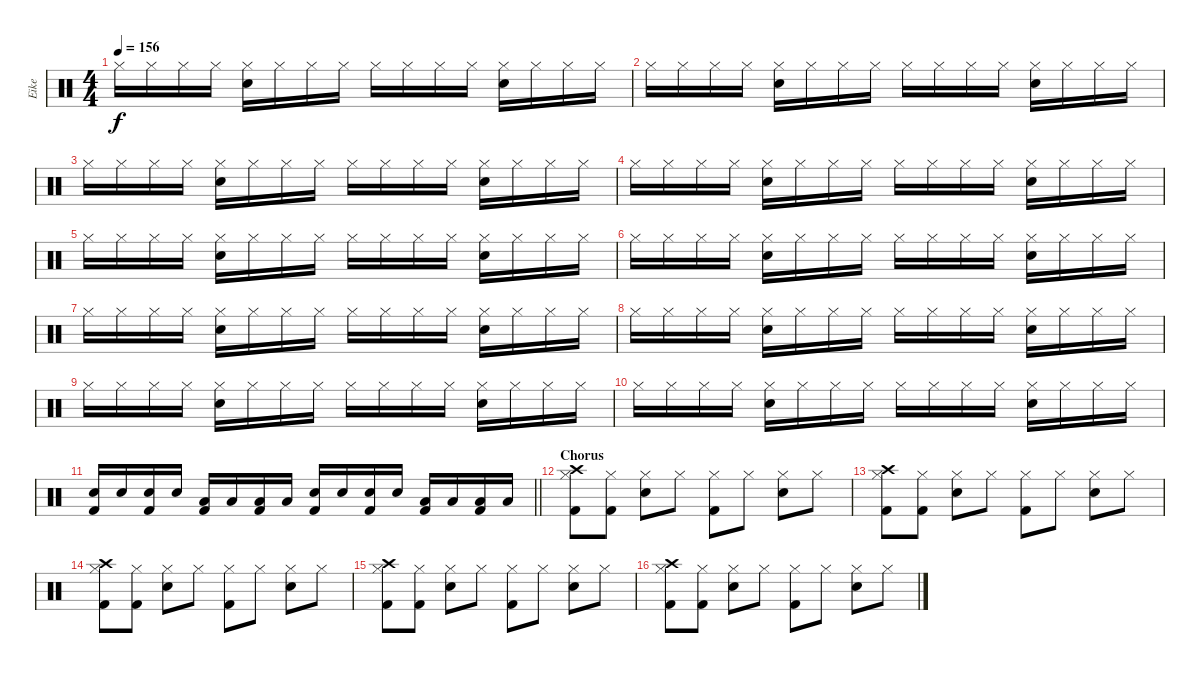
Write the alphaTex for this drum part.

\track ("Eike" "Eike") {instrument percussion}
\staff {score}
\articulation defaults
\ts (4 4)
\tempo 156
\clef neutral
\ks c "Hi-Hat (closed)".16{dy f} "Hi-Hat (closed)".16 "Hi-Hat (closed)".16 "Hi-Hat (closed)".16
("Hi-Hat (closed)" "Snare (hit) 2").16 "Hi-Hat (closed)".16 "Hi-Hat (closed)".16 "Hi-Hat (closed)".16 "Hi-Hat (closed)".16 "Hi-Hat (closed)".16 "Hi-Hat (closed)".16 "Hi-Hat (closed)".16 ("Hi-Hat (closed)" "Snare (hit) 2").16 "Hi-Hat (closed)".16 "Hi-Hat (closed)".16 "Hi-Hat (closed)".16 |
"Hi-Hat (closed)".16 "Hi-Hat (closed)".16 "Hi-Hat (closed)".16 "Hi-Hat (closed)".16 ("Hi-Hat (closed)" "Snare (hit) 2").16 "Hi-Hat (closed)".16 "Hi-Hat (closed)".16 "Hi-Hat (closed)".16 "Hi-Hat (closed)".16 "Hi-Hat (closed)".16 "Hi-Hat (closed)".16 "Hi-Hat (closed)".16 ("Hi-Hat (closed)" "Snare (hit) 2").16 "Hi-Hat (closed)".16 "Hi-Hat (closed)".16 "Hi-Hat (closed)".16 |
"Hi-Hat (closed)".16 "Hi-Hat (closed)".16 "Hi-Hat (closed)".16 "Hi-Hat (closed)".16 ("Hi-Hat (closed)" "Snare (hit) 2").16 "Hi-Hat (closed)".16 "Hi-Hat (closed)".16 "Hi-Hat (closed)".16 "Hi-Hat (closed)".16 "Hi-Hat (closed)".16 "Hi-Hat (closed)".16 "Hi-Hat (closed)".16 ("Hi-Hat (closed)" "Snare (hit) 2").16 "Hi-Hat (closed)".16 "Hi-Hat (closed)".16 "Hi-Hat (closed)".16 |
"Hi-Hat (closed)".16 "Hi-Hat (closed)".16 "Hi-Hat (closed)".16 "Hi-Hat (closed)".16 ("Hi-Hat (closed)" "Snare (hit) 2").16 "Hi-Hat (closed)".16 "Hi-Hat (closed)".16 "Hi-Hat (closed)".16 "Hi-Hat (closed)".16 "Hi-Hat (closed)".16 "Hi-Hat (closed)".16 "Hi-Hat (closed)".16 ("Hi-Hat (closed)" "Snare (hit) 2").16 "Hi-Hat (closed)".16 "Hi-Hat (closed)".16 "Hi-Hat (closed)".16 |
"Hi-Hat (closed)".16 "Hi-Hat (closed)".16 "Hi-Hat (closed)".16 "Hi-Hat (closed)".16 ("Hi-Hat (closed)" "Snare (hit) 2").16 "Hi-Hat (closed)".16 "Hi-Hat (closed)".16 "Hi-Hat (closed)".16 "Hi-Hat (closed)".16 "Hi-Hat (closed)".16 "Hi-Hat (closed)".16 "Hi-Hat (closed)".16 ("Hi-Hat (closed)" "Snare (hit) 2").16 "Hi-Hat (closed)".16 "Hi-Hat (closed)".16 "Hi-Hat (closed)".16 |
"Hi-Hat (closed)".16 "Hi-Hat (closed)".16 "Hi-Hat (closed)".16 "Hi-Hat (closed)".16 ("Hi-Hat (closed)" "Snare (hit) 2").16 "Hi-Hat (closed)".16 "Hi-Hat (closed)".16 "Hi-Hat (closed)".16 "Hi-Hat (closed)".16 "Hi-Hat (closed)".16 "Hi-Hat (closed)".16 "Hi-Hat (closed)".16 ("Hi-Hat (closed)" "Snare (hit) 2").16 "Hi-Hat (closed)".16 "Hi-Hat (closed)".16 "Hi-Hat (closed)".16 |
"Hi-Hat (closed)".16 "Hi-Hat (closed)".16 "Hi-Hat (closed)".16 "Hi-Hat (closed)".16 ("Hi-Hat (closed)" "Snare (hit) 2").16 "Hi-Hat (closed)".16 "Hi-Hat (closed)".16 "Hi-Hat (closed)".16 "Hi-Hat (closed)".16 "Hi-Hat (closed)".16 "Hi-Hat (closed)".16 "Hi-Hat (closed)".16 ("Hi-Hat (closed)" "Snare (hit) 2").16 "Hi-Hat (closed)".16 "Hi-Hat (closed)".16 "Hi-Hat (closed)".16 |
"Hi-Hat (closed)".16 "Hi-Hat (closed)".16 "Hi-Hat (closed)".16 "Hi-Hat (closed)".16 ("Hi-Hat (closed)" "Snare (hit) 2").16 "Hi-Hat (closed)".16 "Hi-Hat (closed)".16 "Hi-Hat (closed)".16 "Hi-Hat (closed)".16 "Hi-Hat (closed)".16 "Hi-Hat (closed)".16 "Hi-Hat (closed)".16 ("Hi-Hat (closed)" "Snare (hit) 2").16 "Hi-Hat (closed)".16 "Hi-Hat (closed)".16 "Hi-Hat (closed)".16 |
"Hi-Hat (closed)".16 "Hi-Hat (closed)".16 "Hi-Hat (closed)".16 "Hi-Hat (closed)".16 ("Hi-Hat (closed)" "Snare (hit) 2").16 "Hi-Hat (closed)".16 "Hi-Hat (closed)".16 "Hi-Hat (closed)".16 "Hi-Hat (closed)".16 "Hi-Hat (closed)".16 "Hi-Hat (closed)".16 "Hi-Hat (closed)".16 ("Hi-Hat (closed)" "Snare (hit) 2").16 "Hi-Hat (closed)".16 "Hi-Hat (closed)".16 "Hi-Hat (closed)".16 |
"Hi-Hat (closed)".16 "Hi-Hat (closed)".16 "Hi-Hat (closed)".16 "Hi-Hat (closed)".16 ("Hi-Hat (closed)" "Snare (hit) 2").16 "Hi-Hat (closed)".16 "Hi-Hat (closed)".16 "Hi-Hat (closed)".16 "Hi-Hat (closed)".16 "Hi-Hat (closed)".16 "Hi-Hat (closed)".16 "Hi-Hat (closed)".16 ("Hi-Hat (closed)" "Snare (hit) 2").16 "Hi-Hat (closed)".16 "Hi-Hat (closed)".16 "Hi-Hat (closed)".16 |
\barLineRight lightlight
("Snare (hit) 2" "Kick (hit) 2").16 "Snare (hit) 2".16 ("Snare (hit) 2" "Kick (hit) 2").16 "Snare (hit) 2".16 ("Low Tom (hit)" "Kick (hit) 2").16 "Low Tom (hit)".16 ("Low Tom (hit)" "Kick (hit) 2").16 "Low Tom (hit)".16 ("Snare (hit) 2" "Kick (hit) 2").16 "Snare (hit) 2".16 ("Snare (hit) 2" "Kick (hit) 2").16 "Snare (hit) 2".16 ("Low Tom (hit)" "Kick (hit) 2").16 "Low Tom (hit)".16 ("Low Tom (hit)" "Kick (hit) 2").16 "Low Tom (hit)".16 |
\section ("" "Chorus")
("Hi-Hat (closed)" "Kick (hit) 2" "Crash high (hit)").8 ("Hi-Hat (closed)" "Kick (hit) 2").8 ("Hi-Hat (closed)" "Snare (hit) 2").8 "Hi-Hat (closed)".8 ("Hi-Hat (closed)" "Kick (hit) 2").8 "Hi-Hat (closed)".8 ("Hi-Hat (closed)" "Snare (hit) 2").8 "Hi-Hat (closed)".8 |
("Hi-Hat (closed)" "Kick (hit) 2" "Crash high (hit)").8 ("Hi-Hat (closed)" "Kick (hit) 2").8 ("Hi-Hat (closed)" "Snare (hit) 2").8 "Hi-Hat (closed)".8 ("Hi-Hat (closed)" "Kick (hit) 2").8 "Hi-Hat (closed)".8 ("Hi-Hat (closed)" "Snare (hit) 2").8 "Hi-Hat (closed)".8 |
("Hi-Hat (closed)" "Kick (hit) 2" "Crash high (hit)").8 ("Hi-Hat (closed)" "Kick (hit) 2").8 ("Hi-Hat (closed)" "Snare (hit) 2").8 "Hi-Hat (closed)".8 ("Hi-Hat (closed)" "Kick (hit) 2").8 "Hi-Hat (closed)".8 ("Hi-Hat (closed)" "Snare (hit) 2").8 "Hi-Hat (closed)".8 |
("Hi-Hat (closed)" "Kick (hit) 2" "Crash high (hit)").8 ("Hi-Hat (closed)" "Kick (hit) 2").8 ("Hi-Hat (closed)" "Snare (hit) 2").8 "Hi-Hat (closed)".8 ("Hi-Hat (closed)" "Kick (hit) 2").8 "Hi-Hat (closed)".8 ("Hi-Hat (closed)" "Snare (hit) 2").8 "Hi-Hat (closed)".8 |
("Hi-Hat (closed)" "Kick (hit) 2" "Crash high (hit)").8 ("Hi-Hat (closed)" "Kick (hit) 2").8 ("Hi-Hat (closed)" "Snare (hit) 2").8 "Hi-Hat (closed)".8 ("Hi-Hat (closed)" "Kick (hit) 2").8 "Hi-Hat (closed)".8 ("Hi-Hat (closed)" "Snare (hit) 2").8 "Hi-Hat (closed)".8
